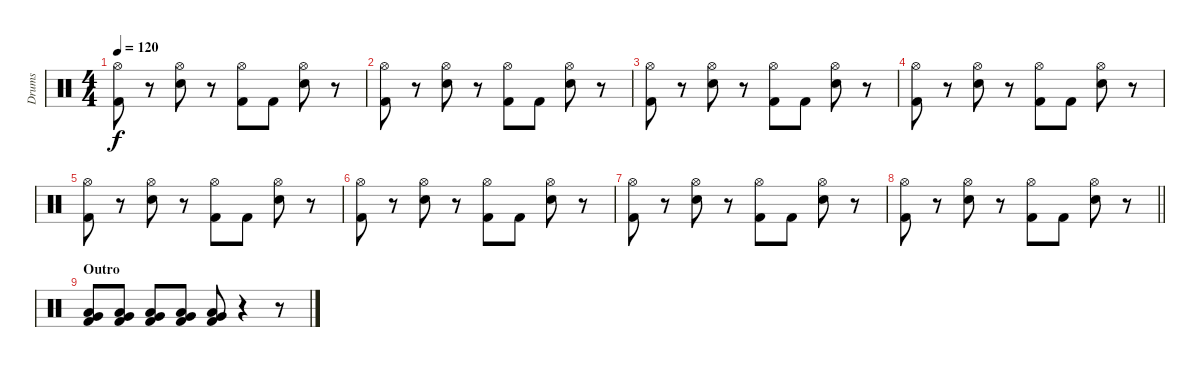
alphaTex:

\track ("Drums" "Drums") {instrument percussion}
\staff {score}
\articulation defaults
\ts (4 4)
\tempo 120
\clef neutral
\ks c
("Hi-Hat (open)" "Kick (hit) 2").8{dy f} r.8 ("Snare (hit) 2" "Hi-Hat (open)").8 r.8 ("Hi-Hat (open)" "Kick (hit) 2").8 "Kick (hit) 2".8 ("Snare (hit) 2" "Hi-Hat (open)").8 r.8 |
("Hi-Hat (open)" "Kick (hit) 2").8 r.8 ("Snare (hit) 2" "Hi-Hat (open)").8 r.8 ("Hi-Hat (open)" "Kick (hit) 2").8 "Kick (hit) 2".8 ("Snare (hit) 2" "Hi-Hat (open)").8 r.8 |
("Hi-Hat (open)" "Kick (hit) 2").8 r.8 ("Snare (hit) 2" "Hi-Hat (open)").8 r.8 ("Hi-Hat (open)" "Kick (hit) 2").8 "Kick (hit) 2".8 ("Snare (hit) 2" "Hi-Hat (open)").8 r.8 |
("Hi-Hat (open)" "Kick (hit) 2").8 r.8 ("Snare (hit) 2" "Hi-Hat (open)").8 r.8 ("Hi-Hat (open)" "Kick (hit) 2").8 "Kick (hit) 2".8 ("Snare (hit) 2" "Hi-Hat (open)").8 r.8 |
("Hi-Hat (open)" "Kick (hit) 2").8 r.8 ("Snare (hit) 2" "Hi-Hat (open)").8 r.8 ("Hi-Hat (open)" "Kick (hit) 2").8 "Kick (hit) 2".8 ("Snare (hit) 2" "Hi-Hat (open)").8 r.8 |
("Hi-Hat (open)" "Kick (hit) 2").8 r.8 ("Snare (hit) 2" "Hi-Hat (open)").8 r.8 ("Hi-Hat (open)" "Kick (hit) 2").8 "Kick (hit) 2".8 ("Snare (hit) 2" "Hi-Hat (open)").8 r.8 |
("Hi-Hat (open)" "Kick (hit) 2").8 r.8 ("Snare (hit) 2" "Hi-Hat (open)").8 r.8 ("Hi-Hat (open)" "Kick (hit) 2").8 "Kick (hit) 2".8 ("Snare (hit) 2" "Hi-Hat (open)").8 r.8 |
\barLineRight lightlight
("Hi-Hat (open)" "Kick (hit) 2").8 r.8 ("Snare (hit) 2" "Hi-Hat (open)").8 r.8 ("Hi-Hat (open)" "Kick (hit) 2").8 "Kick (hit) 2".8 ("Snare (hit) 2" "Hi-Hat (open)").8 r.8 |
\section ("" "Outro")
("Very Low Tom (hit)" "Low Floor Tom (hit)" "Kick (hit) 2").8 ("Very Low Tom (hit)" "Low Floor Tom (hit)" "Kick (hit) 2").8 ("Very Low Tom (hit)" "Low Floor Tom (hit)" "Kick (hit) 2").8 ("Very Low Tom (hit)" "Low Floor Tom (hit)" "Kick (hit) 2").8 ("Very Low Tom (hit)" "Low Floor Tom (hit)" "Kick (hit) 2").8 r.4 r.8
